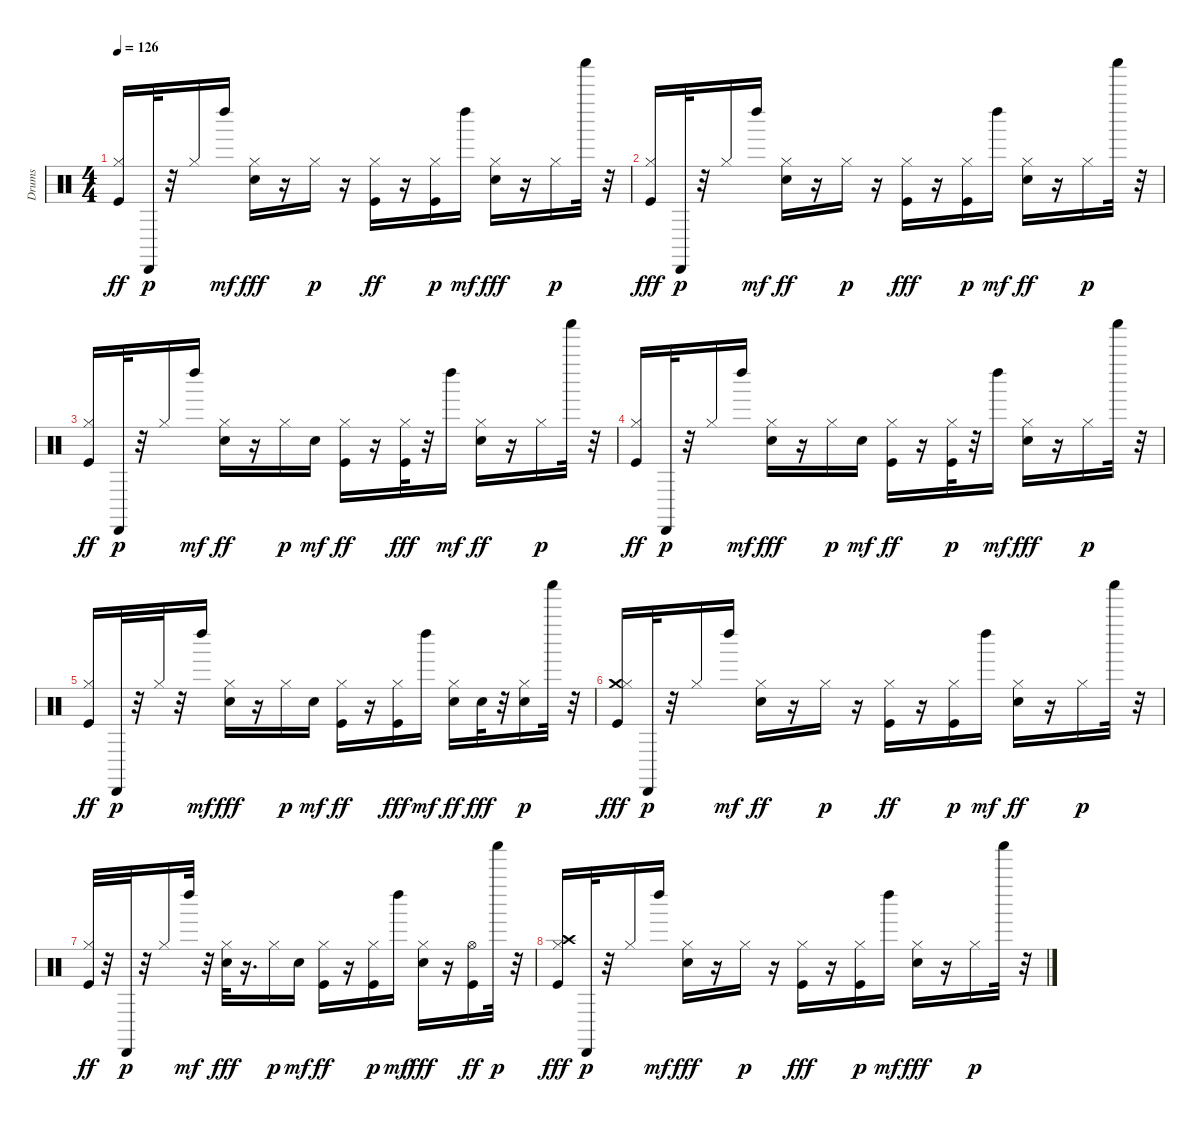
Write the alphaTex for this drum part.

\track ("Drums" "Drums") {instrument percussion}
\staff {score}
\articulation defaults
\ts (4 4)
\tempo 126
\clef neutral
\ks c
("Kick (hit)" "Hi-Hat (closed)").16{dy ff} "Cabasa (hit)".32{dy p} r.32 "Hi-Hat (closed)".16 "Left Maraca (hit)".16{dy mf} ("Hi-Hat (closed)" "Electric Snare (hit)").16{dy fff} r.16 "Hi-Hat (closed)".16{dy p} r.16 ("Kick (hit)" "Hi-Hat (closed)").16{dy ff} r.16 ("Kick (hit)" "Hi-Hat (closed)").16{dy p} "Left Maraca (hit)".16{dy mf} ("Hi-Hat (closed)" "Electric Snare (hit)").16{dy fff} r.16 "Hi-Hat (closed)".16{dy p} "Shaker (hit)".32 r.32 |
("Hi-Hat (closed)" "Kick (hit)").16{dy fff} "Cabasa (hit)".32{dy p} r.32 "Hi-Hat (closed)".16 "Left Maraca (hit)".16{dy mf} ("Electric Snare (hit)" "Hi-Hat (closed)").16{dy ff} r.16 "Hi-Hat (closed)".16{dy p} r.16 ("Hi-Hat (closed)" "Kick (hit)").16{dy fff} r.16 ("Kick (hit)" "Hi-Hat (closed)").16{dy p} "Left Maraca (hit)".16{dy mf} ("Electric Snare (hit)" "Hi-Hat (closed)").16{dy ff} r.16 "Hi-Hat (closed)".16{dy p} "Shaker (hit)".32 r.32 |
("Kick (hit)" "Hi-Hat (closed)").16{dy ff} "Cabasa (hit)".32{dy p} r.32 "Hi-Hat (closed)".16 "Left Maraca (hit)".16{dy mf} ("Electric Snare (hit)" "Hi-Hat (closed)").16{dy ff} r.16 "Hi-Hat (closed)".16{dy p} "Electric Snare (hit)".16{dy mf} ("Kick (hit)" "Hi-Hat (closed)").16{dy ff} r.16 ("Hi-Hat (closed)" "Kick (hit)").32{dy fff} r.32 "Left Maraca (hit)".16{dy mf} ("Electric Snare (hit)" "Hi-Hat (closed)").16{dy ff} r.16 "Hi-Hat (closed)".16{dy p} "Shaker (hit)".32 r.32 |
("Kick (hit)" "Hi-Hat (closed)").16{dy ff} "Cabasa (hit)".32{dy p} r.32 "Hi-Hat (closed)".16 "Left Maraca (hit)".16{dy mf} ("Hi-Hat (closed)" "Electric Snare (hit)").16{dy fff} r.16 "Hi-Hat (closed)".16{dy p} "Electric Snare (hit)".16{dy mf} ("Kick (hit)" "Hi-Hat (closed)").16{dy ff} r.16 ("Kick (hit)" "Hi-Hat (closed)").32{dy p} r.32 "Left Maraca (hit)".16{dy mf} ("Hi-Hat (closed)" "Electric Snare (hit)").16{dy fff} r.16 "Hi-Hat (closed)".16{dy p} "Shaker (hit)".32 r.32 |
("Kick (hit)" "Hi-Hat (closed)").16{dy ff} "Cabasa (hit)".32{dy p} r.32 "Hi-Hat (closed)".32 r.32 "Left Maraca (hit)".16{dy mf} ("Hi-Hat (closed)" "Electric Snare (hit)").16{dy fff} r.16 "Hi-Hat (closed)".16{dy p} "Electric Snare (hit)".16{dy mf} ("Kick (hit)" "Hi-Hat (closed)").16{dy ff} r.16 ("Hi-Hat (closed)" "Kick (hit)").16{dy fff} "Left Maraca (hit)".16{dy mf} ("Electric Snare (hit)" "Hi-Hat (closed)").16{dy ff} "Electric Snare (hit)".32{dy fff} r.32 ("Electric Snare (hit)" "Hi-Hat (closed)").16{dy p} "Shaker (hit)".32 r.32 |
("Crash medium (hit)" "Hi-Hat (closed)" "Kick (hit)").16{dy fff} "Cabasa (hit)".32{dy p} r.32 "Hi-Hat (closed)".16 "Left Maraca (hit)".16{dy mf} ("Electric Snare (hit)" "Hi-Hat (closed)").16{dy ff} r.16 "Hi-Hat (closed)".16{dy p} r.16 ("Kick (hit)" "Hi-Hat (closed)").16{dy ff} r.16 ("Kick (hit)" "Hi-Hat (closed)").16{dy p} "Left Maraca (hit)".16{dy mf} ("Electric Snare (hit)" "Hi-Hat (closed)").16{dy ff} r.16 "Hi-Hat (closed)".16{dy p} "Shaker (hit)".32 r.32 |
("Kick (hit)" "Hi-Hat (closed)").32{dy ff} r.32 "Cabasa (hit)".32{dy p} r.32 "Hi-Hat (closed)".16 "Left Maraca (hit)".32{dy mf} r.32 ("Hi-Hat (closed)" "Electric Snare (hit)").32{dy fff} r.16{d} "Hi-Hat (closed)".16{dy p} "Electric Snare (hit)".16{dy mf} ("Kick (hit)" "Hi-Hat (closed)").16{dy ff} r.16 ("Kick (hit)" "Hi-Hat (closed)").16{dy p} "Left Maraca (hit)".16{dy mf} ("Hi-Hat (closed)" "Electric Snare (hit)").16{dy fff} r.16 ("Kick (hit)" "Hi-Hat (open)").16{dy ff} "Shaker (hit)".32{dy p} r.32 |
("Crash high (hit)" "Hi-Hat (closed)" "Kick (hit)").16{dy fff} "Cabasa (hit)".32{dy p} r.32 "Hi-Hat (closed)".16 "Left Maraca (hit)".16{dy mf} ("Hi-Hat (closed)" "Electric Snare (hit)").16{dy fff} r.16 "Hi-Hat (closed)".16{dy p} r.16 ("Hi-Hat (closed)" "Kick (hit)").16{dy fff} r.16 ("Kick (hit)" "Hi-Hat (closed)").16{dy p} "Left Maraca (hit)".16{dy mf} ("Hi-Hat (closed)" "Electric Snare (hit)").16{dy fff} r.16 "Hi-Hat (closed)".16{dy p} "Shaker (hit)".32 r.32
